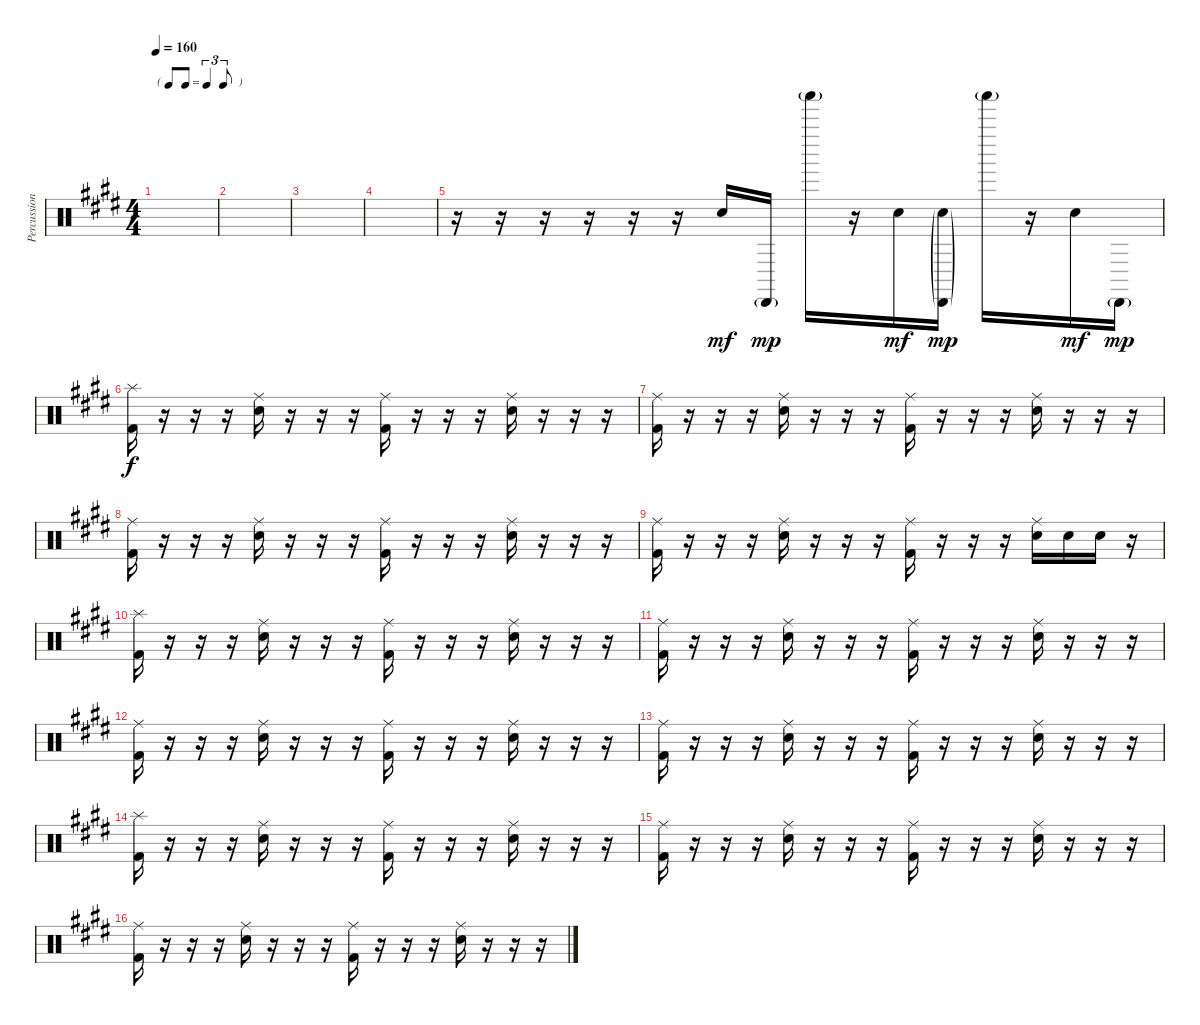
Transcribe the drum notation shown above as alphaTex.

\track ("Percussion" "Percussion") {instrument percussion}
\staff {score}
\articulation defaults
\ts (4 4)
\tf triplet8th
\tempo 160
\clef neutral
\ks e
|
|
|
|
r.16 r.16 r.16 r.16 r.16 r.16 "Electric Snare (hit)".16{dy mf} "Cabasa (hit)"{g}.16{dy mp} "Shaker (hit)"{g}.16 r.16 "Electric Snare (hit)".16{dy mf} ("Cabasa (hit)"{g} "Electric Snare (hit)"{g}).16{dy mp} "Shaker (hit)"{g}.16 r.16 "Electric Snare (hit)".16{dy mf} "Cabasa (hit)"{g}.16{dy mp} |
("Splash (hit)" "Kick (hit) 2").16{dy f volume 7} r.16 r.16 r.16 ("Ride (middle)" "Electric Snare (hit)").16 r.16 r.16 r.16 ("Ride (middle)" "Kick (hit) 2").16 r.16 r.16 r.16 ("Ride (middle)" "Electric Snare (hit)").16 r.16 r.16 r.16 |
("Ride (middle)" "Kick (hit) 2").16 r.16 r.16 r.16 ("Ride (middle)" "Electric Snare (hit)").16 r.16 r.16 r.16 ("Ride (middle)" "Kick (hit) 2").16 r.16 r.16 r.16 ("Ride (middle)" "Electric Snare (hit)").16 r.16 r.16 r.16 |
("Ride (middle)" "Kick (hit) 2").16 r.16 r.16 r.16 ("Ride (middle)" "Electric Snare (hit)").16 r.16 r.16 r.16 ("Ride (middle)" "Kick (hit) 2").16 r.16 r.16 r.16 ("Ride (middle)" "Electric Snare (hit)").16 r.16 r.16 r.16 |
("Ride (middle)" "Kick (hit) 2").16 r.16 r.16 r.16 ("Ride (middle)" "Electric Snare (hit)").16 r.16 r.16 r.16 ("Ride (middle)" "Kick (hit) 2").16 r.16 r.16 r.16 ("Ride (middle)" "Electric Snare (hit)").16 "Electric Snare (hit)".16 "Electric Snare (hit)".16 r.16 |
("Splash (hit)" "Kick (hit) 2").16 r.16 r.16 r.16 ("Ride (middle)" "Electric Snare (hit)").16 r.16 r.16 r.16 ("Ride (middle)" "Kick (hit) 2").16 r.16 r.16 r.16 ("Ride (middle)" "Electric Snare (hit)").16 r.16 r.16 r.16 |
("Ride (middle)" "Kick (hit) 2").16 r.16 r.16 r.16 ("Ride (middle)" "Electric Snare (hit)").16 r.16 r.16 r.16 ("Ride (middle)" "Kick (hit) 2").16 r.16 r.16 r.16 ("Ride (middle)" "Electric Snare (hit)").16 r.16 r.16 r.16 |
("Ride (middle)" "Kick (hit) 2").16 r.16 r.16 r.16 ("Ride (middle)" "Electric Snare (hit)").16 r.16 r.16 r.16 ("Ride (middle)" "Kick (hit) 2").16 r.16 r.16 r.16 ("Ride (middle)" "Electric Snare (hit)").16 r.16 r.16 r.16 |
("Ride (middle)" "Kick (hit) 2").16 r.16 r.16 r.16 ("Ride (middle)" "Electric Snare (hit)").16 r.16 r.16 r.16 ("Ride (middle)" "Kick (hit) 2").16 r.16 r.16 r.16 ("Ride (middle)" "Electric Snare (hit)").16 r.16 r.16 r.16 |
("Splash (hit)" "Kick (hit) 2").16 r.16 r.16 r.16 ("Ride (middle)" "Electric Snare (hit)").16 r.16 r.16 r.16 ("Ride (middle)" "Kick (hit) 2").16 r.16 r.16 r.16 ("Ride (middle)" "Electric Snare (hit)").16 r.16 r.16 r.16 |
("Ride (middle)" "Kick (hit) 2").16 r.16 r.16 r.16 ("Ride (middle)" "Electric Snare (hit)").16 r.16 r.16 r.16 ("Ride (middle)" "Kick (hit) 2").16 r.16 r.16 r.16 ("Ride (middle)" "Electric Snare (hit)").16 r.16 r.16 r.16 |
("Ride (middle)" "Kick (hit) 2").16 r.16 r.16 r.16 ("Ride (middle)" "Electric Snare (hit)").16 r.16 r.16 r.16 ("Ride (middle)" "Kick (hit) 2").16 r.16 r.16 r.16 ("Ride (middle)" "Electric Snare (hit)").16 r.16 r.16 r.16
